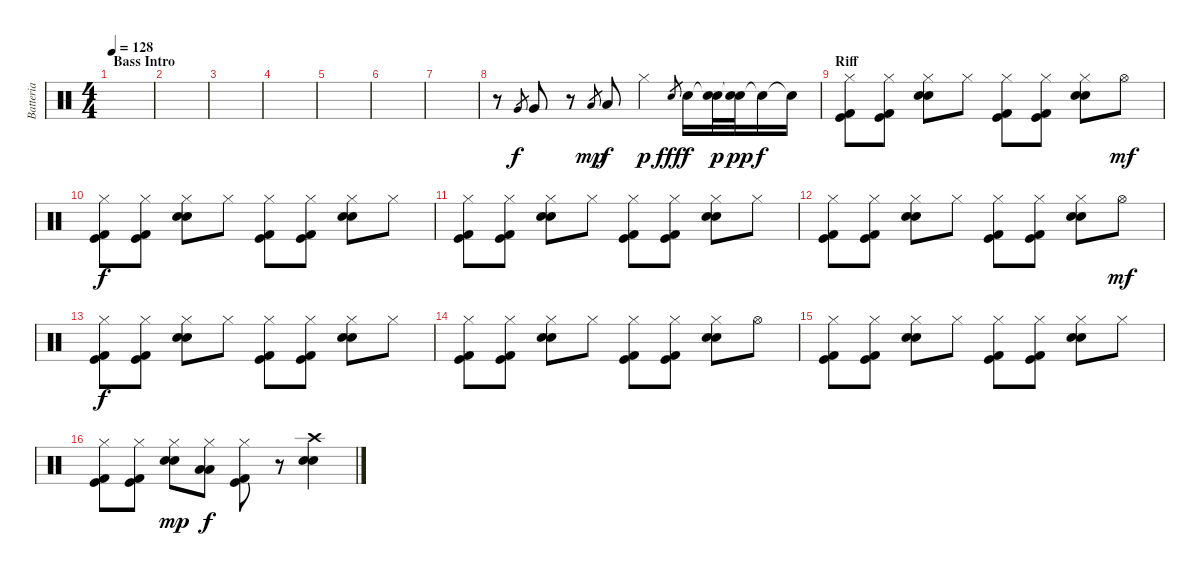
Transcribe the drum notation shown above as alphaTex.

\track ("Batteria" "Batteria") {instrument percussion}
\staff {score}
\articulation defaults
\ts (4 4)
\section ("" "Bass Intro")
\tempo 128
\clef neutral
\ks c
|
|
|
|
|
|
|
r.8 "Very Low Tom (hit)".8{gr} "Very Low Tom (hit)".8 r.8 "Low Floor Tom (hit)".8{gr dy mp} "Low Floor Tom (hit)".8{dy f} "Hi-Hat (closed)".4{dy p} "Electric Snare (hit)".8{gr dy fff} "Electric Snare (hit)".16{dy f} ("Snare (hit)"{t} "Electric Snare (hit)").32{dy p} ("Snare (hit)"{t} "Electric Snare (hit)").32{dy pp} "Snare (hit)"{t}.16{dy f} "Snare (hit)"{t}.16 |
\section ("" "Riff")
("Hi-Hat (closed)" "Kick (hit) 2" "Kick (hit)").8 ("Hi-Hat (closed)" "Kick (hit) 2" "Kick (hit)").8 ("Hi-Hat (closed)" "Electric Snare (hit)" "Electric Snare (hit)").8 "Hi-Hat (closed)".8 ("Hi-Hat (closed)" "Kick (hit) 2" "Kick (hit)").8 ("Hi-Hat (closed)" "Kick (hit) 2" "Kick (hit)").8 ("Hi-Hat (closed)" "Electric Snare (hit)" "Electric Snare (hit)").8 "Hi-Hat (open)".8{dy mf} |
("Hi-Hat (closed)" "Kick (hit) 2" "Kick (hit)").8{dy f} ("Hi-Hat (closed)" "Kick (hit) 2" "Kick (hit)").8 ("Hi-Hat (closed)" "Electric Snare (hit)" "Electric Snare (hit)").8 "Hi-Hat (closed)".8 ("Hi-Hat (closed)" "Kick (hit) 2" "Kick (hit)").8 ("Hi-Hat (closed)" "Kick (hit) 2" "Kick (hit)").8 ("Hi-Hat (closed)" "Electric Snare (hit)" "Electric Snare (hit)").8 "Hi-Hat (closed)".8 |
("Hi-Hat (closed)" "Kick (hit) 2" "Kick (hit)").8 ("Hi-Hat (closed)" "Kick (hit) 2" "Kick (hit)").8 ("Hi-Hat (closed)" "Electric Snare (hit)" "Electric Snare (hit)").8 "Hi-Hat (closed)".8 ("Hi-Hat (closed)" "Kick (hit) 2" "Kick (hit)").8 ("Hi-Hat (closed)" "Kick (hit) 2" "Kick (hit)").8 ("Hi-Hat (closed)" "Electric Snare (hit)" "Electric Snare (hit)").8 "Hi-Hat (closed)".8 |
("Hi-Hat (closed)" "Kick (hit) 2" "Kick (hit)").8 ("Hi-Hat (closed)" "Kick (hit) 2" "Kick (hit)").8 ("Hi-Hat (closed)" "Electric Snare (hit)" "Electric Snare (hit)").8 "Hi-Hat (closed)".8 ("Hi-Hat (closed)" "Kick (hit) 2" "Kick (hit)").8 ("Hi-Hat (closed)" "Kick (hit) 2" "Kick (hit)").8 ("Hi-Hat (closed)" "Electric Snare (hit)" "Electric Snare (hit)").8 "Hi-Hat (open)".8{dy mf} |
("Hi-Hat (closed)" "Kick (hit) 2" "Kick (hit)").8{dy f} ("Hi-Hat (closed)" "Kick (hit) 2" "Kick (hit)").8 ("Hi-Hat (closed)" "Electric Snare (hit)" "Electric Snare (hit)").8 "Hi-Hat (closed)".8 ("Hi-Hat (closed)" "Kick (hit) 2" "Kick (hit)").8 ("Hi-Hat (closed)" "Kick (hit) 2" "Kick (hit)").8 ("Hi-Hat (closed)" "Electric Snare (hit)" "Electric Snare (hit)").8 "Hi-Hat (closed)".8 |
("Hi-Hat (closed)" "Kick (hit) 2" "Kick (hit)").8 ("Hi-Hat (closed)" "Kick (hit) 2" "Kick (hit)").8 ("Hi-Hat (closed)" "Electric Snare (hit)" "Electric Snare (hit)").8 "Hi-Hat (closed)".8 ("Hi-Hat (closed)" "Kick (hit) 2" "Kick (hit)").8 ("Hi-Hat (closed)" "Kick (hit) 2" "Kick (hit)").8 ("Hi-Hat (closed)" "Electric Snare (hit)" "Electric Snare (hit)").8 "Hi-Hat (open)".8 |
("Hi-Hat (closed)" "Kick (hit) 2" "Kick (hit)").8 ("Hi-Hat (closed)" "Kick (hit) 2" "Kick (hit)").8 ("Hi-Hat (closed)" "Electric Snare (hit)" "Electric Snare (hit)").8 "Hi-Hat (closed)".8 ("Hi-Hat (closed)" "Kick (hit) 2" "Kick (hit)").8 ("Hi-Hat (closed)" "Kick (hit) 2" "Kick (hit)").8 ("Hi-Hat (closed)" "Electric Snare (hit)" "Electric Snare (hit)").8 "Hi-Hat (closed)".8 |
("Hi-Hat (closed)" "Kick (hit) 2" "Kick (hit)").8 ("Hi-Hat (closed)" "Kick (hit) 2" "Kick (hit)").8 ("Hi-Hat (closed)" "Electric Snare (hit)" "Electric Snare (hit)").8{dy mp} ("Hi-Hat (closed)" "Low Tom (hit)" "Low Tom (hit)").8{dy f} ("Hi-Hat (closed)" "Kick (hit) 2" "Kick (hit)").8 r.8 ("Crash high (hit)" "Electric Snare (hit)" "Electric Snare (hit)").4
